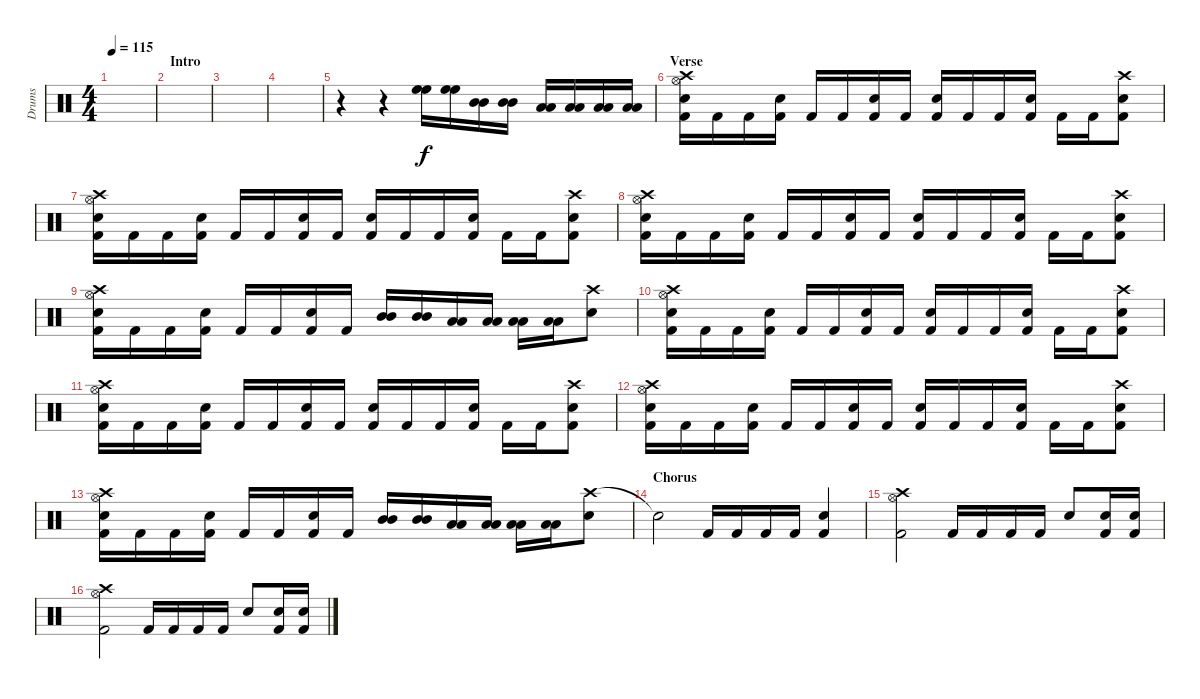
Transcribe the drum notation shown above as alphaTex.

\track ("Drums" "Drums") {instrument percussion}
\staff {score}
\articulation defaults
\ts (4 4)
\tempo 115
\clef neutral
\ks c
|
\section ("" "Intro")
|
|
|
r.4 r.4 ("High Floor Tom (hit)" "High Floor Tom (hit)").16 ("High Floor Tom (hit)" "High Floor Tom (hit)").16 ("Mid Tom (hit)" "Mid Tom (hit)").16 ("Mid Tom (hit)" "Mid Tom (hit)").16 ("Low Tom (hit)" "Low Tom (hit)").16 ("Low Tom (hit)" "Low Tom (hit)").16 ("Low Floor Tom (hit)" "Low Floor Tom (hit)").16 ("Low Floor Tom (hit)" "Low Floor Tom (hit)").16 |
\section ("" "Verse")
("Crash high (hit)" "Hi-Hat (open)" "Electric Snare (hit)" "Kick (hit) 2").16 "Kick (hit) 2".16 "Kick (hit) 2".16 ("Electric Snare (hit)" "Kick (hit) 2").16 "Kick (hit) 2".16 "Kick (hit) 2".16 ("Electric Snare (hit)" "Kick (hit) 2").16 "Kick (hit) 2".16 ("Electric Snare (hit)" "Kick (hit) 2").16 "Kick (hit) 2".16 "Kick (hit) 2".16 ("Electric Snare (hit)" "Kick (hit) 2").16 "Kick (hit) 2".16 "Kick (hit) 2".16 ("Crash high (hit)" "Electric Snare (hit)" "Kick (hit) 2").8 |
("Crash high (hit)" "Hi-Hat (open)" "Electric Snare (hit)" "Kick (hit) 2").16 "Kick (hit) 2".16 "Kick (hit) 2".16 ("Electric Snare (hit)" "Kick (hit) 2").16 "Kick (hit) 2".16 "Kick (hit) 2".16 ("Electric Snare (hit)" "Kick (hit) 2").16 "Kick (hit) 2".16 ("Electric Snare (hit)" "Kick (hit) 2").16 "Kick (hit) 2".16 "Kick (hit) 2".16 ("Electric Snare (hit)" "Kick (hit) 2").16 "Kick (hit) 2".16 "Kick (hit) 2".16 ("Crash high (hit)" "Electric Snare (hit)" "Kick (hit) 2").8 |
("Crash high (hit)" "Hi-Hat (open)" "Electric Snare (hit)" "Kick (hit) 2").16 "Kick (hit) 2".16 "Kick (hit) 2".16 ("Electric Snare (hit)" "Kick (hit) 2").16 "Kick (hit) 2".16 "Kick (hit) 2".16 ("Electric Snare (hit)" "Kick (hit) 2").16 "Kick (hit) 2".16 ("Electric Snare (hit)" "Kick (hit) 2").16 "Kick (hit) 2".16 "Kick (hit) 2".16 ("Electric Snare (hit)" "Kick (hit) 2").16 "Kick (hit) 2".16 "Kick (hit) 2".16 ("Crash high (hit)" "Electric Snare (hit)" "Kick (hit) 2").8 |
("Crash high (hit)" "Hi-Hat (open)" "Electric Snare (hit)" "Kick (hit) 2").16 "Kick (hit) 2".16 "Kick (hit) 2".16 ("Electric Snare (hit)" "Kick (hit) 2").16 "Kick (hit) 2".16 "Kick (hit) 2".16 ("Electric Snare (hit)" "Kick (hit) 2").16 "Kick (hit) 2".16 ("Mid Tom (hit)" "Mid Tom (hit)").16 ("Mid Tom (hit)" "Mid Tom (hit)").16 ("Low Tom (hit)" "Low Tom (hit)").16 ("Low Tom (hit)" "Low Tom (hit)").16 ("Low Floor Tom (hit)" "Low Floor Tom (hit)").16 ("Low Floor Tom (hit)" "Low Floor Tom (hit)").16 ("Crash high (hit)" "Electric Snare (hit)").8 |
("Crash high (hit)" "Hi-Hat (open)" "Electric Snare (hit)" "Kick (hit) 2").16 "Kick (hit) 2".16 "Kick (hit) 2".16 ("Electric Snare (hit)" "Kick (hit) 2").16 "Kick (hit) 2".16 "Kick (hit) 2".16 ("Electric Snare (hit)" "Kick (hit) 2").16 "Kick (hit) 2".16 ("Electric Snare (hit)" "Kick (hit) 2").16 "Kick (hit) 2".16 "Kick (hit) 2".16 ("Electric Snare (hit)" "Kick (hit) 2").16 "Kick (hit) 2".16 "Kick (hit) 2".16 ("Crash high (hit)" "Electric Snare (hit)" "Kick (hit) 2").8 |
("Crash high (hit)" "Hi-Hat (open)" "Electric Snare (hit)" "Kick (hit) 2").16 "Kick (hit) 2".16 "Kick (hit) 2".16 ("Electric Snare (hit)" "Kick (hit) 2").16 "Kick (hit) 2".16 "Kick (hit) 2".16 ("Electric Snare (hit)" "Kick (hit) 2").16 "Kick (hit) 2".16 ("Electric Snare (hit)" "Kick (hit) 2").16 "Kick (hit) 2".16 "Kick (hit) 2".16 ("Electric Snare (hit)" "Kick (hit) 2").16 "Kick (hit) 2".16 "Kick (hit) 2".16 ("Crash high (hit)" "Electric Snare (hit)" "Kick (hit) 2").8 |
("Crash high (hit)" "Hi-Hat (open)" "Electric Snare (hit)" "Kick (hit) 2").16 "Kick (hit) 2".16 "Kick (hit) 2".16 ("Electric Snare (hit)" "Kick (hit) 2").16 "Kick (hit) 2".16 "Kick (hit) 2".16 ("Electric Snare (hit)" "Kick (hit) 2").16 "Kick (hit) 2".16 ("Electric Snare (hit)" "Kick (hit) 2").16 "Kick (hit) 2".16 "Kick (hit) 2".16 ("Electric Snare (hit)" "Kick (hit) 2").16 "Kick (hit) 2".16 "Kick (hit) 2".16 ("Crash high (hit)" "Electric Snare (hit)" "Kick (hit) 2").8 |
("Crash high (hit)" "Hi-Hat (open)" "Electric Snare (hit)" "Kick (hit) 2").16 "Kick (hit) 2".16 "Kick (hit) 2".16 ("Electric Snare (hit)" "Kick (hit) 2").16 "Kick (hit) 2".16 "Kick (hit) 2".16 ("Electric Snare (hit)" "Kick (hit) 2").16 "Kick (hit) 2".16 ("Mid Tom (hit)" "Mid Tom (hit)").16 ("Mid Tom (hit)" "Mid Tom (hit)").16 ("Low Tom (hit)" "Low Tom (hit)").16 ("Low Tom (hit)" "Low Tom (hit)").16 ("Low Floor Tom (hit)" "Low Floor Tom (hit)").16 ("Low Floor Tom (hit)" "Low Floor Tom (hit)").16 ("Crash high (hit)" "Electric Snare (hit)").8 |
\section ("" "Chorus")
"Snare (hit)"{t}.2 "Kick (hit) 2".16 "Kick (hit) 2".16 "Kick (hit) 2".16 "Kick (hit) 2".16 ("Electric Snare (hit)" "Kick (hit) 2").4 |
("Crash high (hit)" "Hi-Hat (open)" "Kick (hit) 2").2 "Kick (hit) 2".16 "Kick (hit) 2".16 "Kick (hit) 2".16 "Kick (hit) 2".16 "Electric Snare (hit)".8 ("Electric Snare (hit)" "Kick (hit) 2").16 ("Electric Snare (hit)" "Kick (hit) 2").16 |
("Crash high (hit)" "Hi-Hat (open)" "Kick (hit) 2").2 "Kick (hit) 2".16 "Kick (hit) 2".16 "Kick (hit) 2".16 "Kick (hit) 2".16 "Electric Snare (hit)".8 ("Electric Snare (hit)" "Kick (hit) 2").16 ("Electric Snare (hit)" "Kick (hit) 2").16
